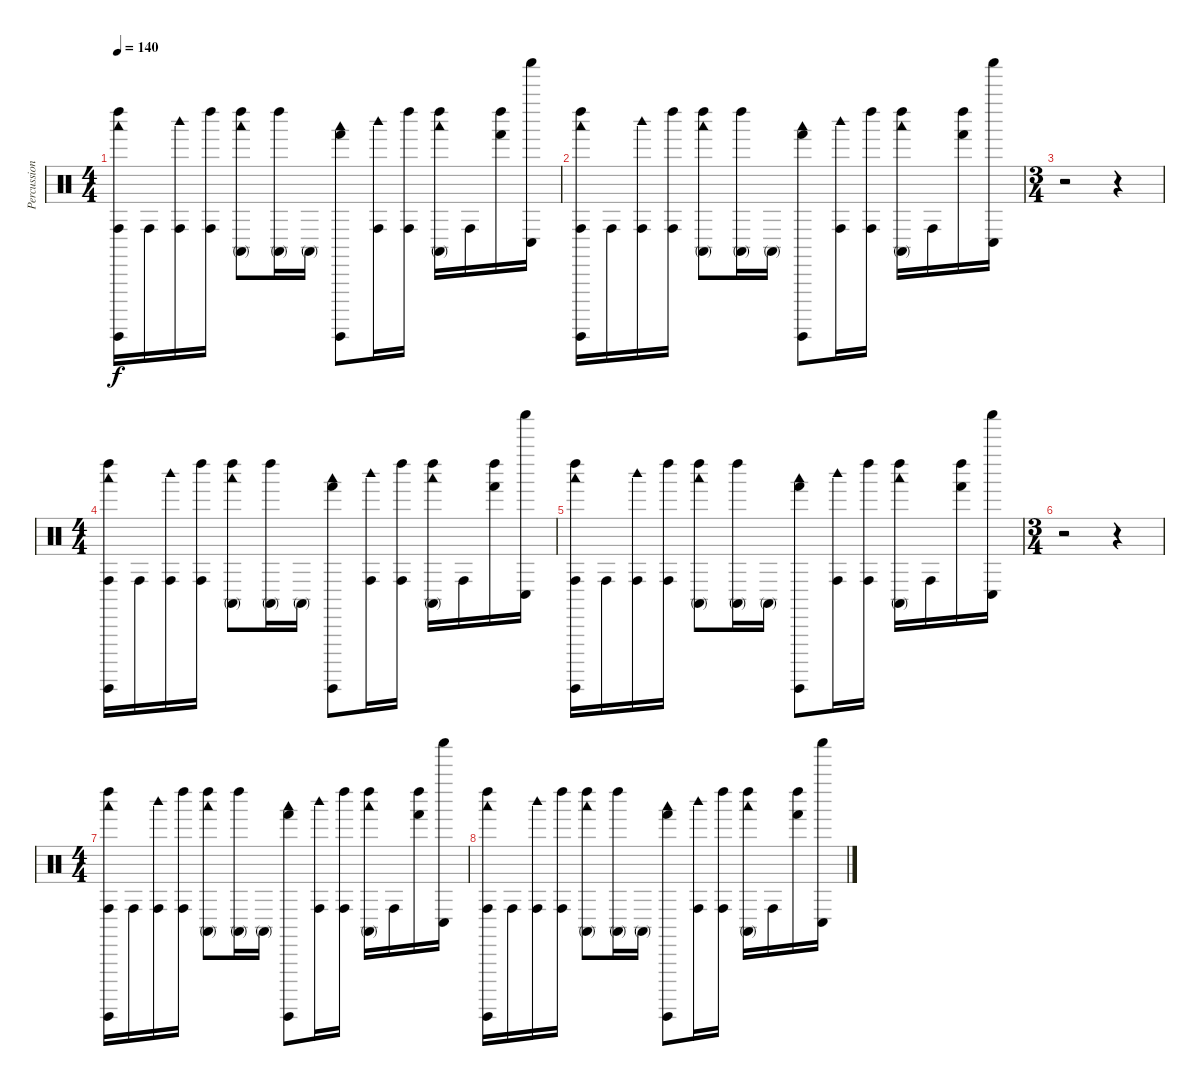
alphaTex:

\track ("Percussions" "Percussion") {instrument percussion}
\staff {score}
\articulation defaults
\ts (4 4)
\tempo 140
\clef neutral
\ks c
("Woodblock low (hit)" "Left Maraca (hit)" "Guiro (hit)" "Conga high (hit)").16{dy f} "Conga high (hit)".16 ("Woodblock high (hit)" "Conga high (hit)").16 ("Left Maraca (hit)" "Conga high (hit)").16 ("Woodblock low (hit)" "Left Maraca (hit)" "Conga high (mute)").8 ("Left Maraca (hit)" "Conga high (mute)").16 "Conga high (mute)".16 ("Woodblock low (hit)" "Guiro (hit)" "Hand (hit)").8 ("Woodblock high (hit)" "Conga high (hit)").16 ("Left Maraca (hit)" "Conga high (hit)").16 ("Woodblock low (hit)" "Left Maraca (hit)" "Conga high (mute)").16 "Conga high (hit)".16 ("Left Maraca (hit)" "Hand (hit)").16 ("Shaker (hit)" "Conga low (hit)").16 |
("Woodblock low (hit)" "Left Maraca (hit)" "Guiro (hit)" "Conga high (hit)").16 "Conga high (hit)".16 ("Woodblock high (hit)" "Conga high (hit)").16 ("Left Maraca (hit)" "Conga high (hit)").16 ("Woodblock low (hit)" "Left Maraca (hit)" "Conga high (mute)").8 ("Left Maraca (hit)" "Conga high (mute)").16 "Conga high (mute)".16 ("Woodblock low (hit)" "Guiro (hit)" "Hand (hit)").8 ("Woodblock high (hit)" "Conga high (hit)").16 ("Left Maraca (hit)" "Conga high (hit)").16 ("Woodblock low (hit)" "Left Maraca (hit)" "Conga high (mute)").16 "Conga high (hit)".16 ("Left Maraca (hit)" "Hand (hit)").16 ("Shaker (hit)" "Conga low (hit)").16 |
\ts (3 4)
r.2 r.4 |
\ts (4 4)
("Woodblock low (hit)" "Left Maraca (hit)" "Guiro (hit)" "Conga high (hit)").16 "Conga high (hit)".16 ("Woodblock high (hit)" "Conga high (hit)").16 ("Left Maraca (hit)" "Conga high (hit)").16 ("Woodblock low (hit)" "Left Maraca (hit)" "Conga high (mute)").8 ("Left Maraca (hit)" "Conga high (mute)").16 "Conga high (mute)".16 ("Woodblock low (hit)" "Guiro (hit)" "Hand (hit)").8 ("Woodblock high (hit)" "Conga high (hit)").16 ("Left Maraca (hit)" "Conga high (hit)").16 ("Woodblock low (hit)" "Left Maraca (hit)" "Conga high (mute)").16 "Conga high (hit)".16 ("Left Maraca (hit)" "Hand (hit)").16 ("Shaker (hit)" "Conga low (hit)").16 |
("Woodblock low (hit)" "Left Maraca (hit)" "Guiro (hit)" "Conga high (hit)").16 "Conga high (hit)".16 ("Woodblock high (hit)" "Conga high (hit)").16 ("Left Maraca (hit)" "Conga high (hit)").16 ("Woodblock low (hit)" "Left Maraca (hit)" "Conga high (mute)").8 ("Left Maraca (hit)" "Conga high (mute)").16 "Conga high (mute)".16 ("Woodblock low (hit)" "Guiro (hit)" "Hand (hit)").8 ("Woodblock high (hit)" "Conga high (hit)").16 ("Left Maraca (hit)" "Conga high (hit)").16 ("Woodblock low (hit)" "Left Maraca (hit)" "Conga high (mute)").16 "Conga high (hit)".16 ("Left Maraca (hit)" "Hand (hit)").16 ("Shaker (hit)" "Conga low (hit)").16 |
\ts (3 4)
r.2 r.4 |
\ts (4 4)
("Woodblock low (hit)" "Left Maraca (hit)" "Guiro (hit)" "Conga high (hit)").16 "Conga high (hit)".16 ("Woodblock high (hit)" "Conga high (hit)").16 ("Left Maraca (hit)" "Conga high (hit)").16 ("Woodblock low (hit)" "Left Maraca (hit)" "Conga high (mute)").8 ("Left Maraca (hit)" "Conga high (mute)").16 "Conga high (mute)".16 ("Woodblock low (hit)" "Guiro (hit)" "Hand (hit)").8 ("Woodblock high (hit)" "Conga high (hit)").16 ("Left Maraca (hit)" "Conga high (hit)").16 ("Woodblock low (hit)" "Left Maraca (hit)" "Conga high (mute)").16 "Conga high (hit)".16 ("Left Maraca (hit)" "Hand (hit)").16 ("Shaker (hit)" "Conga low (hit)").16 |
("Woodblock low (hit)" "Left Maraca (hit)" "Guiro (hit)" "Conga high (hit)").16 "Conga high (hit)".16 ("Woodblock high (hit)" "Conga high (hit)").16 ("Left Maraca (hit)" "Conga high (hit)").16 ("Woodblock low (hit)" "Left Maraca (hit)" "Conga high (mute)").8 ("Left Maraca (hit)" "Conga high (mute)").16 "Conga high (mute)".16 ("Woodblock low (hit)" "Guiro (hit)" "Hand (hit)").8 ("Woodblock high (hit)" "Conga high (hit)").16 ("Left Maraca (hit)" "Conga high (hit)").16 ("Woodblock low (hit)" "Left Maraca (hit)" "Conga high (mute)").16 "Conga high (hit)".16 ("Left Maraca (hit)" "Hand (hit)").16 ("Shaker (hit)" "Conga low (hit)").16
